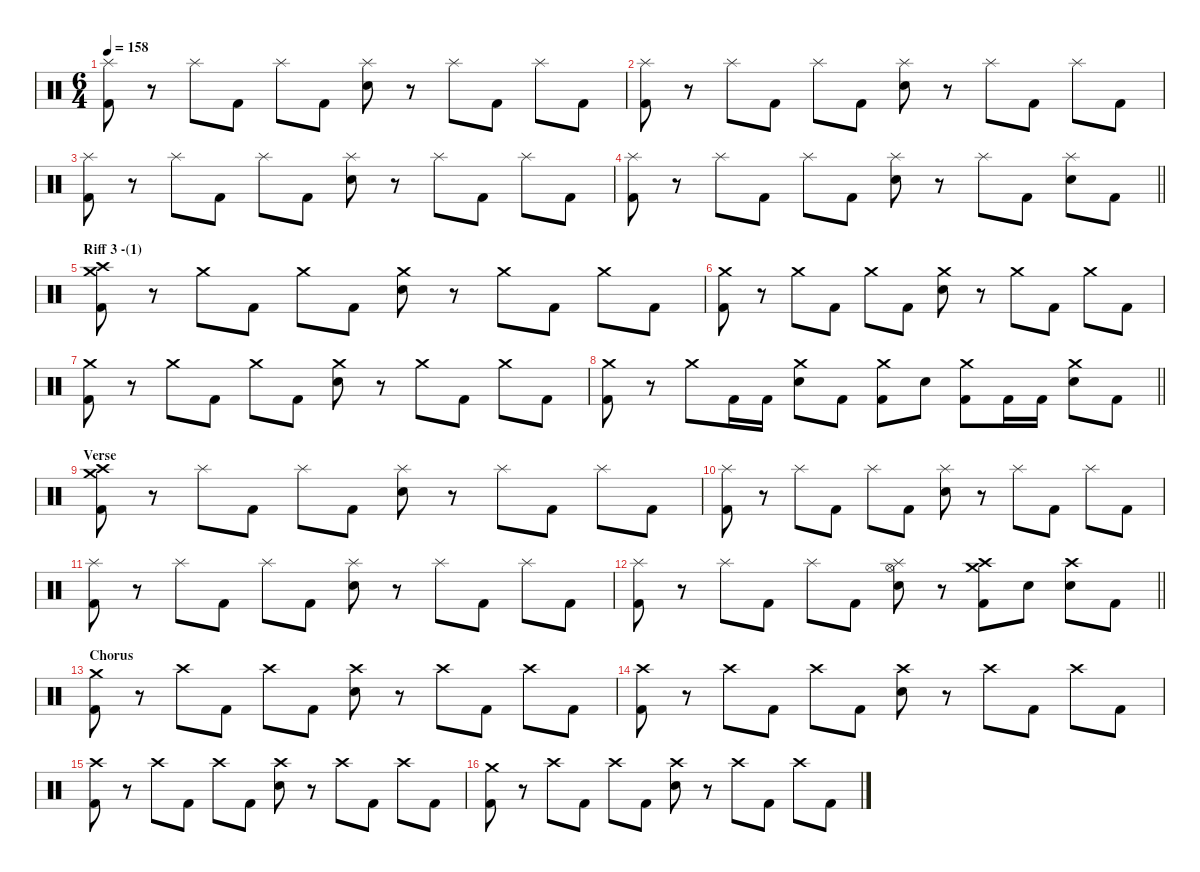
\defaultSystemsLayout 4
\hideDynamics
\bracketExtendMode nobrackets
\singleTrackTrackNamePolicy hidden
\multiTrackTrackNamePolicy hidden
\firstSystemTrackNameMode fullname
\firstSystemTrackNameOrientation horizontal
\otherSystemsTrackNameOrientation horizontal
\track ("Drums" "drm.") {defaultSystemsLayout 4 instrument percussion}
\staff {score}
\articulation defaults
\ts (6 4)
\tempo 158
\clef neutral
\ks c
("Splash (hit)" "Kick (hit) 2").8{dy f beam Down} r.8{beam Down} "Splash (hit)".8{beam Down} "Kick (hit) 2".8{beam Down} "Splash (hit)".8{beam Down} "Kick (hit) 2".8{beam Down} ("Splash (hit)" "Snare (hit) 2").8{beam Down} r.8{beam Down} "Splash (hit)".8{beam Down} "Kick (hit) 2".8{beam Down} "Splash (hit)".8{beam Down} "Kick (hit) 2".8{beam Down} |
("Splash (hit)" "Kick (hit) 2").8{beam Down} r.8{beam Down} "Splash (hit)".8{beam Down} "Kick (hit) 2".8{beam Down} "Splash (hit)".8{beam Down} "Kick (hit) 2".8{beam Down} ("Splash (hit)" "Snare (hit) 2").8{beam Down} r.8{beam Down} "Splash (hit)".8{beam Down} "Kick (hit) 2".8{beam Down} "Splash (hit)".8{beam Down} "Kick (hit) 2".8{beam Down} |
("Splash (hit)" "Kick (hit) 2").8{beam Down} r.8{beam Down} "Splash (hit)".8{beam Down} "Kick (hit) 2".8{beam Down} "Splash (hit)".8{beam Down} "Kick (hit) 2".8{beam Down} ("Splash (hit)" "Snare (hit) 2").8{beam Down} r.8{beam Down} "Splash (hit)".8{beam Down} "Kick (hit) 2".8{beam Down} "Splash (hit)".8{beam Down} "Kick (hit) 2".8{beam Down} |
\barLineRight lightlight
("Splash (hit)" "Kick (hit) 2").8{beam Down} r.8{beam Down} "Splash (hit)".8{beam Down} "Kick (hit) 2".8{beam Down} "Splash (hit)".8{beam Down} "Kick (hit) 2".8{beam Down} ("Splash (hit)" "Snare (hit) 2").8{beam Down} r.8{beam Down} "Splash (hit)".8{beam Down} "Kick (hit) 2".8{beam Down} ("Splash (hit)" "Snare (hit) 2").8{beam Down} "Kick (hit) 2".8{beam Down} |
\section ("" "Riff 3 -(1)")
("Crash medium (hit)" "Crash high (hit)" "Kick (hit) 2").8{beam Down} r.8{beam Down} "Crash medium (hit)".8{beam Down} "Kick (hit) 2".8{beam Down} "Crash medium (hit)".8{beam Down} "Kick (hit) 2".8{beam Down} ("Crash medium (hit)" "Snare (hit) 2").8{beam Down} r.8{beam Down} "Crash medium (hit)".8{beam Down} "Kick (hit) 2".8{beam Down} "Crash medium (hit)".8{beam Down} "Kick (hit) 2".8{beam Down} |
("Crash medium (hit)" "Kick (hit) 2").8{beam Down} r.8{beam Down} "Crash medium (hit)".8{beam Down} "Kick (hit) 2".8{beam Down} "Crash medium (hit)".8{beam Down} "Kick (hit) 2".8{beam Down} ("Crash medium (hit)" "Snare (hit) 2").8{beam Down} r.8{beam Down} "Crash medium (hit)".8{beam Down} "Kick (hit) 2".8{beam Down} "Crash medium (hit)".8{beam Down} "Kick (hit) 2".8{beam Down} |
("Crash medium (hit)" "Kick (hit) 2").8{beam Down} r.8{beam Down} "Crash medium (hit)".8{beam Down} "Kick (hit) 2".8{beam Down} "Crash medium (hit)".8{beam Down} "Kick (hit) 2".8{beam Down} ("Crash medium (hit)" "Snare (hit) 2").8{beam Down} r.8{beam Down} "Crash medium (hit)".8{beam Down} "Kick (hit) 2".8{beam Down} "Crash medium (hit)".8{beam Down} "Kick (hit) 2".8{beam Down} |
\barLineRight lightlight
("Crash medium (hit)" "Kick (hit) 2").8{beam Down} r.8{beam Down} "Crash medium (hit)".8{beam Down} "Kick (hit) 2".16{beam Down} "Kick (hit) 2".16{beam Down} ("Crash medium (hit)" "Snare (hit) 2").8{beam Down} "Kick (hit) 2".8{beam Down} ("Crash medium (hit)" "Kick (hit) 2").8{beam Down} "Snare (hit) 2".8{beam Down} ("Crash medium (hit)" "Kick (hit) 2").8{beam Down} "Kick (hit) 2".16{beam Down} "Kick (hit) 2".16{beam Down} ("Crash medium (hit)" "Snare (hit) 2").8{beam Down} "Kick (hit) 2".8{beam Down} |
\section ("" "Verse")
("Crash high (hit)" "Crash medium (hit)" "Kick (hit) 2").8{beam Down} r.8{beam Down} "Splash (hit)".8{beam Down} "Kick (hit) 2".8{beam Down} "Splash (hit)".8{beam Down} "Kick (hit) 2".8{beam Down} ("Splash (hit)" "Snare (hit) 2").8{beam Down} r.8{beam Down} "Splash (hit)".8{beam Down} "Kick (hit) 2".8{beam Down} "Splash (hit)".8{beam Down} "Kick (hit) 2".8{beam Down} |
("Splash (hit)" "Kick (hit) 2").8{beam Down} r.8{beam Down} "Splash (hit)".8{beam Down} "Kick (hit) 2".8{beam Down} "Splash (hit)".8{beam Down} "Kick (hit) 2".8{beam Down} ("Splash (hit)" "Snare (hit) 2").8{beam Down} r.8{beam Down} "Splash (hit)".8{beam Down} "Kick (hit) 2".8{beam Down} "Splash (hit)".8{beam Down} "Kick (hit) 2".8{beam Down} |
("Splash (hit)" "Kick (hit) 2").8{beam Down} r.8{beam Down} "Splash (hit)".8{beam Down} "Kick (hit) 2".8{beam Down} "Splash (hit)".8{beam Down} "Kick (hit) 2".8{beam Down} ("Splash (hit)" "Snare (hit) 2").8{beam Down} r.8{beam Down} "Splash (hit)".8{beam Down} "Kick (hit) 2".8{beam Down} "Splash (hit)".8{beam Down} "Kick (hit) 2".8{beam Down} |
\barLineRight lightlight
("Splash (hit)" "Kick (hit) 2").8{beam Down} r.8{beam Down} "Splash (hit)".8{beam Down} "Kick (hit) 2".8{beam Down} "Splash (hit)".8{beam Down} "Kick (hit) 2".8{beam Down} ("Hi-Hat (open)" "Splash (hit)" "Snare (hit) 2").8{beam Down} r.8{beam Down} ("Crash high (hit)" "Crash medium (hit)" "Kick (hit) 2").8{beam Down} "Snare (hit) 2".8{beam Down} ("Crash high (hit)" "Snare (hit) 2").8{beam Down} "Kick (hit) 2".8{beam Down} |
\section ("" "Chorus")
("Crash medium (hit)" "Kick (hit) 2").8{beam Down} r.8{beam Down} "Crash high (hit)".8{beam Down} "Kick (hit) 2".8{beam Down} "Crash high (hit)".8{beam Down} "Kick (hit) 2".8{beam Down} ("Crash high (hit)" "Snare (hit) 2").8{beam Down} r.8{beam Down} "Crash high (hit)".8{beam Down} "Kick (hit) 2".8{beam Down} "Crash high (hit)".8{beam Down} "Kick (hit) 2".8{beam Down} |
("Crash high (hit)" "Kick (hit) 2").8{beam Down} r.8{beam Down} "Crash high (hit)".8{beam Down} "Kick (hit) 2".8{beam Down} "Crash high (hit)".8{beam Down} "Kick (hit) 2".8{beam Down} ("Crash high (hit)" "Snare (hit) 2").8{beam Down} r.8{beam Down} "Crash high (hit)".8{beam Down} "Kick (hit) 2".8{beam Down} "Crash high (hit)".8{beam Down} "Kick (hit) 2".8{beam Down} |
("Crash high (hit)" "Kick (hit) 2").8{beam Down} r.8{beam Down} "Crash high (hit)".8{beam Down} "Kick (hit) 2".8{beam Down} "Crash high (hit)".8{beam Down} "Kick (hit) 2".8{beam Down} ("Crash high (hit)" "Snare (hit) 2").8{beam Down} r.8{beam Down} "Crash high (hit)".8{beam Down} "Kick (hit) 2".8{beam Down} "Crash high (hit)".8{beam Down} "Kick (hit) 2".8{beam Down} |
("Crash medium (hit)" "Kick (hit) 2").8{beam Down} r.8{beam Down} "Crash high (hit)".8{beam Down} "Kick (hit) 2".8{beam Down} "Crash high (hit)".8{beam Down} "Kick (hit) 2".8{beam Down} ("Crash high (hit)" "Snare (hit) 2").8{beam Down} r.8{beam Down} "Crash high (hit)".8{beam Down} "Kick (hit) 2".8{beam Down} "Crash high (hit)".8{beam Down} "Kick (hit) 2".8{beam Down}
